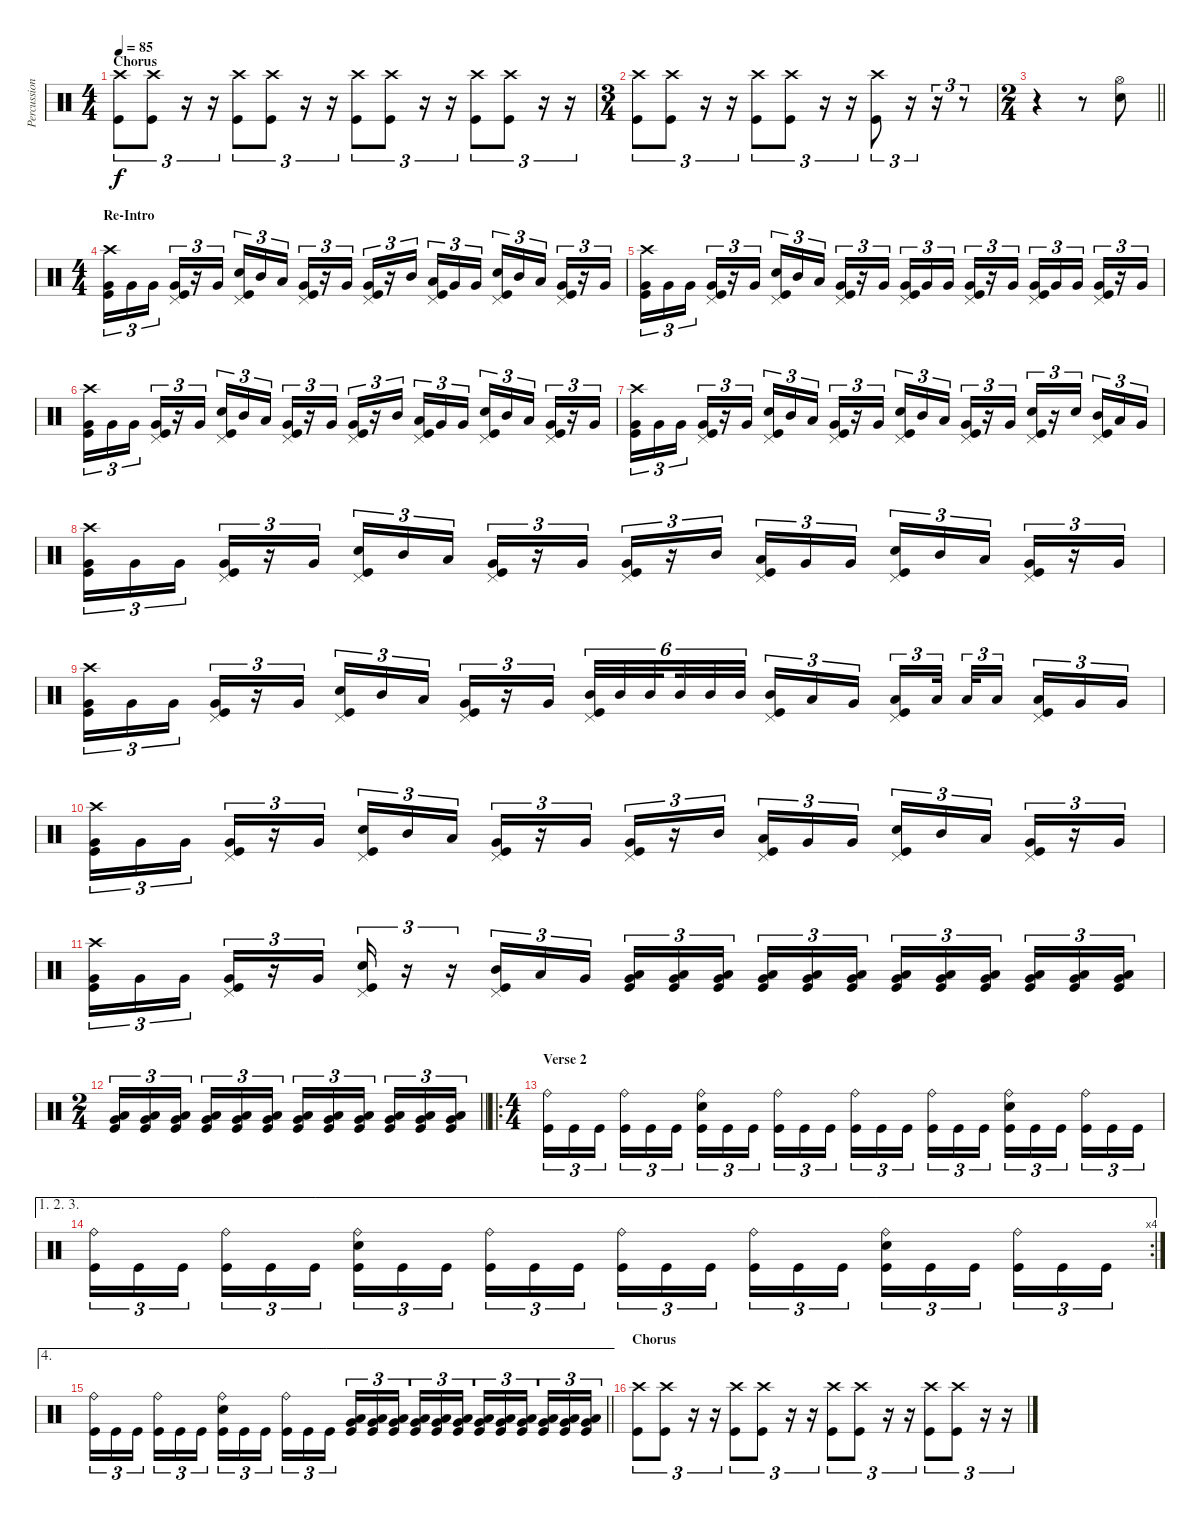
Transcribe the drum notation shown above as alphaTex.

\track ("Percussion" "Percussion") {instrument percussion}
\staff {score}
\articulation defaults
\ts (4 4)
\section ("" "Chorus")
\tempo 85
\clef neutral
\ks c
("Crash high (hit)" "Kick (hit)").8{tu (3 2) dy f} ("Crash high (hit)" "Kick (hit)").8{tu (3 2)} r.16{tu (3 2) volume 0} r.16{tu (3 2)} ("Crash high (hit)" "Kick (hit)").8{tu (3 2) volume 16} ("Crash high (hit)" "Kick (hit)").8{tu (3 2)} r.16{tu (3 2) volume 0} r.16{tu (3 2)} ("Crash high (hit)" "Kick (hit)").8{tu (3 2) volume 16} ("Crash high (hit)" "Kick (hit)").8{tu (3 2)} r.16{tu (3 2) volume 0} r.16{tu (3 2)} ("Crash high (hit)" "Kick (hit)").8{tu (3 2) volume 16} ("Crash high (hit)" "Kick (hit)").8{tu (3 2)} r.16{tu (3 2) volume 0} r.16{tu (3 2)} |
\ts (3 4)
("Crash high (hit)" "Kick (hit)").8{tu (3 2) volume 16} ("Crash high (hit)" "Kick (hit)").8{tu (3 2)} r.16{tu (3 2) volume 0} r.16{tu (3 2)} ("Crash high (hit)" "Kick (hit)").8{tu (3 2) volume 16} ("Crash high (hit)" "Kick (hit)").8{tu (3 2)} r.16{tu (3 2) volume 0} r.16{tu (3 2)} ("Crash high (hit)" "Kick (hit)").8{tu (3 2) volume 16} r.16{tu (3 2) volume 0} r.16{tu (3 2)} r.8{tu (3 2)} |
\ts (2 4)
\barLineRight lightlight
r.4 r.8 ("Hi-Hat (open)" "Electric Snare (hit)").8{volume 16} |
\ts (4 4)
\section ("" "Re-Intro")
("Crash high (hit)" "Very Low Tom (hit)" "Kick (hit)").16{tu (3 2)} "Very Low Tom (hit)".16{tu (3 2)} "Very Low Tom (hit)".16{tu (3 2) beam splitsecondary} ("Pedal Hi-Hat (hit)" "Very Low Tom (hit)" "Kick (hit)").16{tu (3 2)} r.16{tu (3 2)} "Very Low Tom (hit)".16{tu (3 2)} ("Pedal Hi-Hat (hit)" "Electric Snare (hit)" "Kick (hit)").16{tu (3 2)} "Mid Tom (hit)".16{tu (3 2)} "Low Tom (hit)".16{tu (3 2) beam splitsecondary} ("Pedal Hi-Hat (hit)" "Very Low Tom (hit)" "Kick (hit)").16{tu (3 2)} r.16{tu (3 2)} "Very Low Tom (hit)".16{tu (3 2)} ("Pedal Hi-Hat (hit)" "Very Low Tom (hit)" "Kick (hit)").16{tu (3 2)} r.16{tu (3 2)} "Mid Tom (hit)".16{tu (3 2) beam splitsecondary} ("Pedal Hi-Hat (hit)" "Low Tom (hit)" "Kick (hit)").16{tu (3 2)} "Very Low Tom (hit)".16{tu (3 2)} "Very Low Tom (hit)".16{tu (3 2)} ("Pedal Hi-Hat (hit)" "Electric Snare (hit)" "Kick (hit)").16{tu (3 2)} "Mid Tom (hit)".16{tu (3 2)} "Low Tom (hit)".16{tu (3 2) beam splitsecondary} ("Pedal Hi-Hat (hit)" "Very Low Tom (hit)" "Kick (hit)").16{tu (3 2)} r.16{tu (3 2)} "Very Low Tom (hit)".16{tu (3 2)} |
("Crash high (hit)" "Very Low Tom (hit)" "Kick (hit)").16{tu (3 2)} "Very Low Tom (hit)".16{tu (3 2)} "Very Low Tom (hit)".16{tu (3 2) beam splitsecondary} ("Pedal Hi-Hat (hit)" "Very Low Tom (hit)" "Kick (hit)").16{tu (3 2)} r.16{tu (3 2)} "Very Low Tom (hit)".16{tu (3 2)} ("Pedal Hi-Hat (hit)" "Electric Snare (hit)" "Kick (hit)").16{tu (3 2)} "Mid Tom (hit)".16{tu (3 2)} "Low Tom (hit)".16{tu (3 2) beam splitsecondary} ("Pedal Hi-Hat (hit)" "Very Low Tom (hit)" "Kick (hit)").16{tu (3 2)} r.16{tu (3 2)} "Very Low Tom (hit)".16{tu (3 2)} ("Pedal Hi-Hat (hit)" "Very Low Tom (hit)" "Kick (hit)").16{tu (3 2)} "Very Low Tom (hit)".16{tu (3 2)} "Very Low Tom (hit)".16{tu (3 2) beam splitsecondary} ("Pedal Hi-Hat (hit)" "Very Low Tom (hit)" "Kick (hit)").16{tu (3 2)} r.16{tu (3 2)} "Very Low Tom (hit)".16{tu (3 2)} ("Pedal Hi-Hat (hit)" "Very Low Tom (hit)" "Kick (hit)").16{tu (3 2)} "Very Low Tom (hit)".16{tu (3 2)} "Very Low Tom (hit)".16{tu (3 2) beam splitsecondary} ("Pedal Hi-Hat (hit)" "Very Low Tom (hit)" "Kick (hit)").16{tu (3 2)} r.16{tu (3 2)} "Very Low Tom (hit)".16{tu (3 2)} |
("Crash high (hit)" "Very Low Tom (hit)" "Kick (hit)").16{tu (3 2)} "Very Low Tom (hit)".16{tu (3 2)} "Very Low Tom (hit)".16{tu (3 2) beam splitsecondary} ("Pedal Hi-Hat (hit)" "Very Low Tom (hit)" "Kick (hit)").16{tu (3 2)} r.16{tu (3 2)} "Very Low Tom (hit)".16{tu (3 2)} ("Pedal Hi-Hat (hit)" "Electric Snare (hit)" "Kick (hit)").16{tu (3 2)} "Mid Tom (hit)".16{tu (3 2)} "Low Tom (hit)".16{tu (3 2) beam splitsecondary} ("Pedal Hi-Hat (hit)" "Very Low Tom (hit)" "Kick (hit)").16{tu (3 2)} r.16{tu (3 2)} "Very Low Tom (hit)".16{tu (3 2)} ("Pedal Hi-Hat (hit)" "Very Low Tom (hit)" "Kick (hit)").16{tu (3 2)} r.16{tu (3 2)} "Mid Tom (hit)".16{tu (3 2) beam splitsecondary} ("Pedal Hi-Hat (hit)" "Low Tom (hit)" "Kick (hit)").16{tu (3 2)} "Very Low Tom (hit)".16{tu (3 2)} "Very Low Tom (hit)".16{tu (3 2)} ("Pedal Hi-Hat (hit)" "Electric Snare (hit)" "Kick (hit)").16{tu (3 2)} "Mid Tom (hit)".16{tu (3 2)} "Low Tom (hit)".16{tu (3 2) beam splitsecondary} ("Pedal Hi-Hat (hit)" "Very Low Tom (hit)" "Kick (hit)").16{tu (3 2)} r.16{tu (3 2)} "Very Low Tom (hit)".16{tu (3 2)} |
("Crash high (hit)" "Very Low Tom (hit)" "Kick (hit)").16{tu (3 2)} "Very Low Tom (hit)".16{tu (3 2)} "Very Low Tom (hit)".16{tu (3 2) beam splitsecondary} ("Pedal Hi-Hat (hit)" "Very Low Tom (hit)" "Kick (hit)").16{tu (3 2)} r.16{tu (3 2)} "Very Low Tom (hit)".16{tu (3 2)} ("Pedal Hi-Hat (hit)" "Electric Snare (hit)" "Kick (hit)").16{tu (3 2)} "Mid Tom (hit)".16{tu (3 2)} "Low Tom (hit)".16{tu (3 2) beam splitsecondary} ("Pedal Hi-Hat (hit)" "Very Low Tom (hit)" "Kick (hit)").16{tu (3 2)} r.16{tu (3 2)} "Very Low Tom (hit)".16{tu (3 2)} ("Pedal Hi-Hat (hit)" "Electric Snare (hit)" "Kick (hit)").16{tu (3 2)} "Mid Tom (hit)".16{tu (3 2)} "Low Tom (hit)".16{tu (3 2) beam splitsecondary} ("Pedal Hi-Hat (hit)" "Very Low Tom (hit)" "Kick (hit)").16{tu (3 2)} r.16{tu (3 2)} "Very Low Tom (hit)".16{tu (3 2)} ("Pedal Hi-Hat (hit)" "Electric Snare (hit)" "Kick (hit)").16{tu (3 2)} r.16{tu (3 2)} "Electric Snare (hit)".16{tu (3 2) beam splitsecondary} ("Pedal Hi-Hat (hit)" "Mid Tom (hit)" "Kick (hit)").16{tu (3 2)} "Low Tom (hit)".16{tu (3 2)} "Very Low Tom (hit)".16{tu (3 2)} |
("Crash high (hit)" "Very Low Tom (hit)" "Kick (hit)").16{tu (3 2)} "Very Low Tom (hit)".16{tu (3 2)} "Very Low Tom (hit)".16{tu (3 2) beam splitsecondary} ("Pedal Hi-Hat (hit)" "Very Low Tom (hit)" "Kick (hit)").16{tu (3 2)} r.16{tu (3 2)} "Very Low Tom (hit)".16{tu (3 2)} ("Pedal Hi-Hat (hit)" "Electric Snare (hit)" "Kick (hit)").16{tu (3 2)} "Mid Tom (hit)".16{tu (3 2)} "Low Tom (hit)".16{tu (3 2) beam splitsecondary} ("Pedal Hi-Hat (hit)" "Very Low Tom (hit)" "Kick (hit)").16{tu (3 2)} r.16{tu (3 2)} "Very Low Tom (hit)".16{tu (3 2)} ("Pedal Hi-Hat (hit)" "Very Low Tom (hit)" "Kick (hit)").16{tu (3 2)} r.16{tu (3 2)} "Mid Tom (hit)".16{tu (3 2) beam splitsecondary} ("Pedal Hi-Hat (hit)" "Low Tom (hit)" "Kick (hit)").16{tu (3 2)} "Very Low Tom (hit)".16{tu (3 2)} "Very Low Tom (hit)".16{tu (3 2)} ("Pedal Hi-Hat (hit)" "Electric Snare (hit)" "Kick (hit)").16{tu (3 2)} "Mid Tom (hit)".16{tu (3 2)} "Low Tom (hit)".16{tu (3 2) beam splitsecondary} ("Pedal Hi-Hat (hit)" "Very Low Tom (hit)" "Kick (hit)").16{tu (3 2)} r.16{tu (3 2)} "Very Low Tom (hit)".16{tu (3 2)} |
("Crash high (hit)" "Very Low Tom (hit)" "Kick (hit)").16{tu (3 2)} "Very Low Tom (hit)".16{tu (3 2)} "Very Low Tom (hit)".16{tu (3 2) beam splitsecondary} ("Pedal Hi-Hat (hit)" "Very Low Tom (hit)" "Kick (hit)").16{tu (3 2)} r.16{tu (3 2)} "Very Low Tom (hit)".16{tu (3 2)} ("Pedal Hi-Hat (hit)" "Electric Snare (hit)" "Kick (hit)").16{tu (3 2)} "Mid Tom (hit)".16{tu (3 2)} "Low Tom (hit)".16{tu (3 2) beam splitsecondary} ("Pedal Hi-Hat (hit)" "Very Low Tom (hit)" "Kick (hit)").16{tu (3 2)} r.16{tu (3 2)} "Very Low Tom (hit)".16{tu (3 2)} ("Pedal Hi-Hat (hit)" "Mid Tom (hit)" "Kick (hit)").32{tu (6 4)} "Mid Tom (hit)".32{tu (6 4)} "Mid Tom (hit)".32{tu (6 4) beam splitsecondary} "Mid Tom (hit)".32{tu (6 4)} "Mid Tom (hit)".32{tu (6 4)} "Mid Tom (hit)".32{tu (6 4) beam splitsecondary} ("Pedal Hi-Hat (hit)" "Mid Tom (hit)" "Kick (hit)").16{tu (3 2)} "Low Tom (hit)".16{tu (3 2)} "Very Low Tom (hit)".16{tu (3 2)} ("Pedal Hi-Hat (hit)" "Low Tom (hit)" "Kick (hit)").16{tu (3 2)} "Low Tom (hit)".32{tu (3 2) beam splitsecondary} "Low Tom (hit)".32{tu (3 2)} "Low Tom (hit)".16{tu (3 2) beam splitsecondary} ("Pedal Hi-Hat (hit)" "Low Tom (hit)" "Kick (hit)").16{tu (3 2)} "Very Low Tom (hit)".16{tu (3 2)} "Very Low Tom (hit)".16{tu (3 2)} |
("Crash high (hit)" "Very Low Tom (hit)" "Kick (hit)").16{tu (3 2)} "Very Low Tom (hit)".16{tu (3 2)} "Very Low Tom (hit)".16{tu (3 2) beam splitsecondary} ("Pedal Hi-Hat (hit)" "Very Low Tom (hit)" "Kick (hit)").16{tu (3 2)} r.16{tu (3 2)} "Very Low Tom (hit)".16{tu (3 2)} ("Pedal Hi-Hat (hit)" "Electric Snare (hit)" "Kick (hit)").16{tu (3 2)} "Mid Tom (hit)".16{tu (3 2)} "Low Tom (hit)".16{tu (3 2) beam splitsecondary} ("Pedal Hi-Hat (hit)" "Very Low Tom (hit)" "Kick (hit)").16{tu (3 2)} r.16{tu (3 2)} "Very Low Tom (hit)".16{tu (3 2)} ("Pedal Hi-Hat (hit)" "Very Low Tom (hit)" "Kick (hit)").16{tu (3 2)} r.16{tu (3 2)} "Mid Tom (hit)".16{tu (3 2) beam splitsecondary} ("Pedal Hi-Hat (hit)" "Low Tom (hit)" "Kick (hit)").16{tu (3 2)} "Very Low Tom (hit)".16{tu (3 2)} "Very Low Tom (hit)".16{tu (3 2)} ("Pedal Hi-Hat (hit)" "Electric Snare (hit)" "Kick (hit)").16{tu (3 2)} "Mid Tom (hit)".16{tu (3 2)} "Low Tom (hit)".16{tu (3 2) beam splitsecondary} ("Pedal Hi-Hat (hit)" "Very Low Tom (hit)" "Kick (hit)").16{tu (3 2)} r.16{tu (3 2)} "Very Low Tom (hit)".16{tu (3 2)} |
("Crash high (hit)" "Very Low Tom (hit)" "Kick (hit)").16{tu (3 2)} "Very Low Tom (hit)".16{tu (3 2)} "Very Low Tom (hit)".16{tu (3 2) beam splitsecondary} ("Pedal Hi-Hat (hit)" "Very Low Tom (hit)" "Kick (hit)").16{tu (3 2)} r.16{tu (3 2)} "Very Low Tom (hit)".16{tu (3 2)} ("Pedal Hi-Hat (hit)" "Electric Snare (hit)" "Kick (hit)").16{tu (3 2)} r.16{tu (3 2)} r.16{tu (3 2)} ("Pedal Hi-Hat (hit)" "Mid Tom (hit)" "Kick (hit)").16{tu (3 2)} "Low Tom (hit)".16{tu (3 2)} "Very Low Tom (hit)".16{tu (3 2)} ("Low Tom (hit)" "Very Low Tom (hit)" "Kick (hit)").16{tu (3 2)} ("Low Tom (hit)" "Very Low Tom (hit)" "Kick (hit)").16{tu (3 2)} ("Low Tom (hit)" "Very Low Tom (hit)" "Kick (hit)").16{tu (3 2) beam splitsecondary} ("Low Tom (hit)" "Very Low Tom (hit)" "Kick (hit)").16{tu (3 2)} ("Low Tom (hit)" "Very Low Tom (hit)" "Kick (hit)").16{tu (3 2)} ("Low Tom (hit)" "Very Low Tom (hit)" "Kick (hit)").16{tu (3 2)} ("Low Tom (hit)" "Very Low Tom (hit)" "Kick (hit)").16{tu (3 2)} ("Low Tom (hit)" "Very Low Tom (hit)" "Kick (hit)").16{tu (3 2)} ("Low Tom (hit)" "Very Low Tom (hit)" "Kick (hit)").16{tu (3 2) beam splitsecondary} ("Low Tom (hit)" "Very Low Tom (hit)" "Kick (hit)").16{tu (3 2)} ("Low Tom (hit)" "Very Low Tom (hit)" "Kick (hit)").16{tu (3 2)} ("Low Tom (hit)" "Very Low Tom (hit)" "Kick (hit)").16{tu (3 2)} |
\ts (2 4)
\barLineRight lightlight
("Low Tom (hit)" "Very Low Tom (hit)" "Kick (hit)").16{tu (3 2)} ("Low Tom (hit)" "Very Low Tom (hit)" "Kick (hit)").16{tu (3 2)} ("Low Tom (hit)" "Very Low Tom (hit)" "Kick (hit)").16{tu (3 2) beam splitsecondary} ("Low Tom (hit)" "Very Low Tom (hit)" "Kick (hit)").16{tu (3 2)} ("Low Tom (hit)" "Very Low Tom (hit)" "Kick (hit)").16{tu (3 2)} ("Low Tom (hit)" "Very Low Tom (hit)" "Kick (hit)").16{tu (3 2)} ("Low Tom (hit)" "Very Low Tom (hit)" "Kick (hit)").16{tu (3 2)} ("Low Tom (hit)" "Very Low Tom (hit)" "Kick (hit)").16{tu (3 2)} ("Low Tom (hit)" "Very Low Tom (hit)" "Kick (hit)").16{tu (3 2) beam splitsecondary} ("Low Tom (hit)" "Very Low Tom (hit)" "Kick (hit)").16{tu (3 2)} ("Low Tom (hit)" "Very Low Tom (hit)" "Kick (hit)").16{tu (3 2)} ("Low Tom (hit)" "Very Low Tom (hit)" "Kick (hit)").16{tu (3 2)} |
\ro
\ts (4 4)
\section ("" "Verse 2")
("Ride (bell)" "Kick (hit)").16{tu (3 2)} "Kick (hit)".16{tu (3 2)} "Kick (hit)".16{tu (3 2) beam splitsecondary} ("Ride (bell)" "Kick (hit)").16{tu (3 2)} "Kick (hit)".16{tu (3 2)} "Kick (hit)".16{tu (3 2)} ("Ride (bell)" "Electric Snare (hit)" "Kick (hit)").16{tu (3 2)} "Kick (hit)".16{tu (3 2)} "Kick (hit)".16{tu (3 2) beam splitsecondary} ("Ride (bell)" "Kick (hit)").16{tu (3 2)} "Kick (hit)".16{tu (3 2)} "Kick (hit)".16{tu (3 2)} ("Ride (bell)" "Kick (hit)").16{tu (3 2)} "Kick (hit)".16{tu (3 2)} "Kick (hit)".16{tu (3 2) beam splitsecondary} ("Ride (bell)" "Kick (hit)").16{tu (3 2)} "Kick (hit)".16{tu (3 2)} "Kick (hit)".16{tu (3 2)} ("Ride (bell)" "Electric Snare (hit)" "Kick (hit)").16{tu (3 2)} "Kick (hit)".16{tu (3 2)} "Kick (hit)".16{tu (3 2) beam splitsecondary} ("Ride (bell)" "Kick (hit)").16{tu (3 2)} "Kick (hit)".16{tu (3 2)} "Kick (hit)".16{tu (3 2)} |
\ae (1 2 3)
\rc 4
("Ride (bell)" "Kick (hit)").16{tu (3 2)} "Kick (hit)".16{tu (3 2)} "Kick (hit)".16{tu (3 2) beam splitsecondary} ("Ride (bell)" "Kick (hit)").16{tu (3 2)} "Kick (hit)".16{tu (3 2)} "Kick (hit)".16{tu (3 2)} ("Ride (bell)" "Electric Snare (hit)" "Kick (hit)").16{tu (3 2)} "Kick (hit)".16{tu (3 2)} "Kick (hit)".16{tu (3 2) beam splitsecondary} ("Ride (bell)" "Kick (hit)").16{tu (3 2)} "Kick (hit)".16{tu (3 2)} "Kick (hit)".16{tu (3 2)} ("Ride (bell)" "Kick (hit)").16{tu (3 2)} "Kick (hit)".16{tu (3 2)} "Kick (hit)".16{tu (3 2) beam splitsecondary} ("Ride (bell)" "Kick (hit)").16{tu (3 2)} "Kick (hit)".16{tu (3 2)} "Kick (hit)".16{tu (3 2)} ("Ride (bell)" "Electric Snare (hit)" "Kick (hit)").16{tu (3 2)} "Kick (hit)".16{tu (3 2)} "Kick (hit)".16{tu (3 2) beam splitsecondary} ("Ride (bell)" "Kick (hit)").16{tu (3 2)} "Kick (hit)".16{tu (3 2)} "Kick (hit)".16{tu (3 2)} |
\ae 4
\barLineRight lightlight
("Ride (bell)" "Kick (hit)").16{tu (3 2)} "Kick (hit)".16{tu (3 2)} "Kick (hit)".16{tu (3 2) beam splitsecondary} ("Ride (bell)" "Kick (hit)").16{tu (3 2)} "Kick (hit)".16{tu (3 2)} "Kick (hit)".16{tu (3 2)} ("Ride (bell)" "Electric Snare (hit)" "Kick (hit)").16{tu (3 2)} "Kick (hit)".16{tu (3 2)} "Kick (hit)".16{tu (3 2) beam splitsecondary} ("Ride (bell)" "Kick (hit)").16{tu (3 2)} "Kick (hit)".16{tu (3 2)} "Kick (hit)".16{tu (3 2)} ("Low Tom (hit)" "Very Low Tom (hit)" "Kick (hit)").16{tu (3 2)} ("Low Tom (hit)" "Very Low Tom (hit)" "Kick (hit)").16{tu (3 2)} ("Low Tom (hit)" "Very Low Tom (hit)" "Kick (hit)").16{tu (3 2) beam splitsecondary} ("Low Tom (hit)" "Very Low Tom (hit)" "Kick (hit)").16{tu (3 2)} ("Low Tom (hit)" "Very Low Tom (hit)" "Kick (hit)").16{tu (3 2)} ("Low Tom (hit)" "Very Low Tom (hit)" "Kick (hit)").16{tu (3 2)} ("Low Tom (hit)" "Very Low Tom (hit)" "Kick (hit)").16{tu (3 2)} ("Low Tom (hit)" "Very Low Tom (hit)" "Kick (hit)").16{tu (3 2)} ("Low Tom (hit)" "Very Low Tom (hit)" "Kick (hit)").16{tu (3 2) beam splitsecondary} ("Low Tom (hit)" "Very Low Tom (hit)" "Kick (hit)").16{tu (3 2)} ("Low Tom (hit)" "Very Low Tom (hit)" "Kick (hit)").16{tu (3 2)} ("Low Tom (hit)" "Very Low Tom (hit)" "Kick (hit)").16{tu (3 2)} |
\section ("" "Chorus")
("Crash high (hit)" "Kick (hit)").8{tu (3 2)} ("Crash high (hit)" "Kick (hit)").8{tu (3 2)} r.16{tu (3 2) volume 0} r.16{tu (3 2)} ("Crash high (hit)" "Kick (hit)").8{tu (3 2) volume 16} ("Crash high (hit)" "Kick (hit)").8{tu (3 2)} r.16{tu (3 2) volume 0} r.16{tu (3 2)} ("Crash high (hit)" "Kick (hit)").8{tu (3 2) volume 16} ("Crash high (hit)" "Kick (hit)").8{tu (3 2)} r.16{tu (3 2) volume 0} r.16{tu (3 2)} ("Crash high (hit)" "Kick (hit)").8{tu (3 2) volume 16} ("Crash high (hit)" "Kick (hit)").8{tu (3 2)} r.16{tu (3 2) volume 0} r.16{tu (3 2)}
